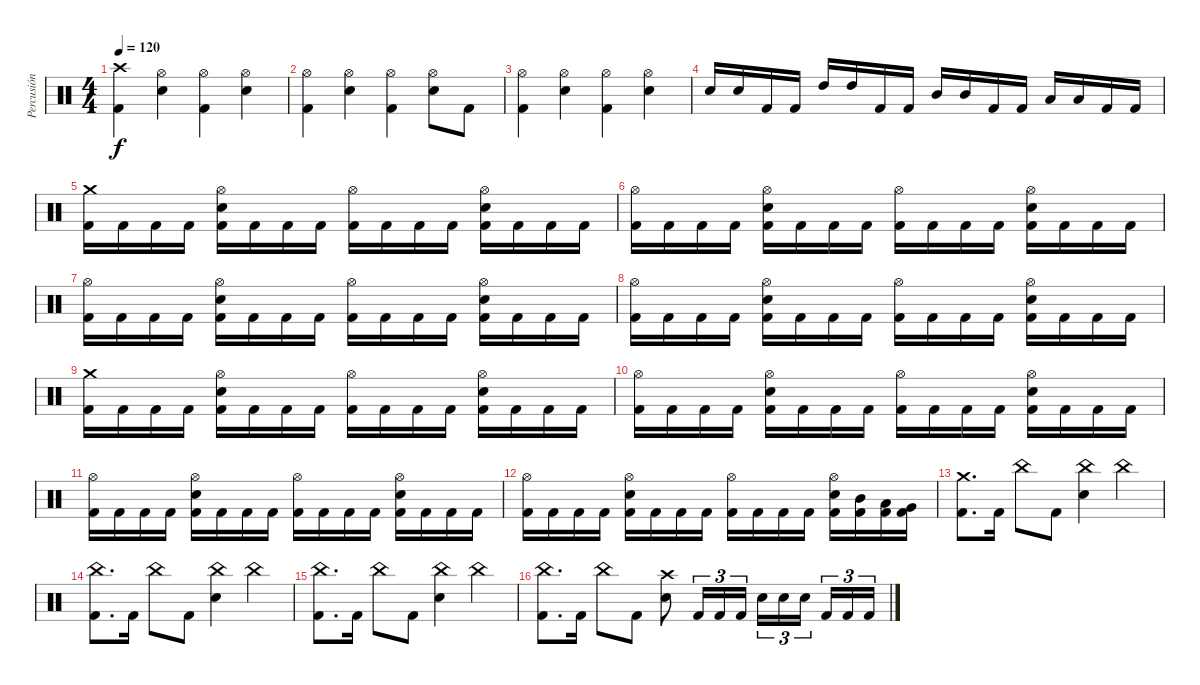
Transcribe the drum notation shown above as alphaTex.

\track ("Percusión" "Percusión") {instrument percussion}
\staff {score}
\articulation defaults
\ts (4 4)
\tempo 120
\clef neutral
\ks c
("Kick (hit) 2" "Crash high (hit)").4{dy f} ("Electric Snare (hit)" "Hi-Hat (open)").4 ("Kick (hit) 2" "Hi-Hat (open)").4 ("Electric Snare (hit)" "Hi-Hat (open)").4 |
("Kick (hit) 2" "Hi-Hat (open)").4 ("Electric Snare (hit)" "Hi-Hat (open)").4 ("Kick (hit) 2" "Hi-Hat (open)").4 ("Electric Snare (hit)" "Hi-Hat (open)").8 "Kick (hit) 2".8 |
("Kick (hit) 2" "Hi-Hat (open)").4 ("Electric Snare (hit)" "Hi-Hat (open)").4 ("Kick (hit) 2" "Hi-Hat (open)").4 ("Electric Snare (hit)" "Hi-Hat (open)").4 |
"Electric Snare (hit)".16 "Electric Snare (hit)".16 "Kick (hit) 2".16 "Kick (hit) 2".16 "High Tom (hit)".16 "High Tom (hit)".16 "Kick (hit) 2".16 "Kick (hit) 2".16 "Mid Tom (hit)".16 "Mid Tom (hit)".16 "Kick (hit) 2".16 "Kick (hit) 2".16 "Low Tom (hit)".16 "Low Tom (hit)".16 "Kick (hit) 2".16 "Kick (hit) 2".16 |
("Kick (hit) 2" "Crash medium (hit)").16 "Kick (hit) 2".16 "Kick (hit) 2".16 "Kick (hit) 2".16 ("Kick (hit) 2" "Electric Snare (hit)" "Hi-Hat (open)").16 "Kick (hit) 2".16 "Kick (hit) 2".16 "Kick (hit) 2".16 ("Kick (hit) 2" "Hi-Hat (open)").16 "Kick (hit) 2".16 "Kick (hit) 2".16 "Kick (hit) 2".16 ("Kick (hit) 2" "Electric Snare (hit)" "Hi-Hat (open)").16 "Kick (hit) 2".16 "Kick (hit) 2".16 "Kick (hit) 2".16 |
("Kick (hit) 2" "Hi-Hat (open)").16 "Kick (hit) 2".16 "Kick (hit) 2".16 "Kick (hit) 2".16 ("Kick (hit) 2" "Electric Snare (hit)" "Hi-Hat (open)").16 "Kick (hit) 2".16 "Kick (hit) 2".16 "Kick (hit) 2".16 ("Kick (hit) 2" "Hi-Hat (open)").16 "Kick (hit) 2".16 "Kick (hit) 2".16 "Kick (hit) 2".16 ("Kick (hit) 2" "Electric Snare (hit)" "Hi-Hat (open)").16 "Kick (hit) 2".16 "Kick (hit) 2".16 "Kick (hit) 2".16 |
("Kick (hit) 2" "Hi-Hat (open)").16 "Kick (hit) 2".16 "Kick (hit) 2".16 "Kick (hit) 2".16 ("Kick (hit) 2" "Electric Snare (hit)" "Hi-Hat (open)").16 "Kick (hit) 2".16 "Kick (hit) 2".16 "Kick (hit) 2".16 ("Kick (hit) 2" "Hi-Hat (open)").16 "Kick (hit) 2".16 "Kick (hit) 2".16 "Kick (hit) 2".16 ("Kick (hit) 2" "Electric Snare (hit)" "Hi-Hat (open)").16 "Kick (hit) 2".16 "Kick (hit) 2".16 "Kick (hit) 2".16 |
("Kick (hit) 2" "Hi-Hat (open)").16 "Kick (hit) 2".16 "Kick (hit) 2".16 "Kick (hit) 2".16 ("Kick (hit) 2" "Electric Snare (hit)" "Hi-Hat (open)").16 "Kick (hit) 2".16 "Kick (hit) 2".16 "Kick (hit) 2".16 ("Kick (hit) 2" "Hi-Hat (open)").16 "Kick (hit) 2".16 "Kick (hit) 2".16 "Kick (hit) 2".16 ("Kick (hit) 2" "Electric Snare (hit)" "Hi-Hat (open)").16 "Kick (hit) 2".16 "Kick (hit) 2".16 "Kick (hit) 2".16 |
("Kick (hit) 2" "Crash medium (hit)").16 "Kick (hit) 2".16 "Kick (hit) 2".16 "Kick (hit) 2".16 ("Kick (hit) 2" "Electric Snare (hit)" "Hi-Hat (open)").16 "Kick (hit) 2".16 "Kick (hit) 2".16 "Kick (hit) 2".16 ("Kick (hit) 2" "Hi-Hat (open)").16 "Kick (hit) 2".16 "Kick (hit) 2".16 "Kick (hit) 2".16 ("Kick (hit) 2" "Electric Snare (hit)" "Hi-Hat (open)").16 "Kick (hit) 2".16 "Kick (hit) 2".16 "Kick (hit) 2".16 |
("Kick (hit) 2" "Hi-Hat (open)").16 "Kick (hit) 2".16 "Kick (hit) 2".16 "Kick (hit) 2".16 ("Kick (hit) 2" "Electric Snare (hit)" "Hi-Hat (open)").16 "Kick (hit) 2".16 "Kick (hit) 2".16 "Kick (hit) 2".16 ("Kick (hit) 2" "Hi-Hat (open)").16 "Kick (hit) 2".16 "Kick (hit) 2".16 "Kick (hit) 2".16 ("Kick (hit) 2" "Electric Snare (hit)" "Hi-Hat (open)").16 "Kick (hit) 2".16 "Kick (hit) 2".16 "Kick (hit) 2".16 |
("Kick (hit) 2" "Hi-Hat (open)").16 "Kick (hit) 2".16 "Kick (hit) 2".16 "Kick (hit) 2".16 ("Kick (hit) 2" "Electric Snare (hit)" "Hi-Hat (open)").16 "Kick (hit) 2".16 "Kick (hit) 2".16 "Kick (hit) 2".16 ("Kick (hit) 2" "Hi-Hat (open)").16 "Kick (hit) 2".16 "Kick (hit) 2".16 "Kick (hit) 2".16 ("Kick (hit) 2" "Electric Snare (hit)" "Hi-Hat (open)").16 "Kick (hit) 2".16 "Kick (hit) 2".16 "Kick (hit) 2".16 |
("Kick (hit) 2" "Hi-Hat (open)").16 "Kick (hit) 2".16 "Kick (hit) 2".16 "Kick (hit) 2".16 ("Kick (hit) 2" "Electric Snare (hit)" "Hi-Hat (open)").16 "Kick (hit) 2".16 "Kick (hit) 2".16 "Kick (hit) 2".16 ("Kick (hit) 2" "Hi-Hat (open)").16 "Kick (hit) 2".16 "Kick (hit) 2".16 "Kick (hit) 2".16 ("Kick (hit) 2" "Electric Snare (hit)" "Hi-Hat (open)").16 ("Kick (hit) 2" "Mid Tom (hit)").16 ("Kick (hit) 2" "Low Tom (hit)").16 ("Kick (hit) 2" "Very Low Tom (hit)").16 |
("Kick (hit) 2" "Crash medium (hit)").8{d} "Kick (hit) 2".16 "China (hit)".8 "Kick (hit) 2".8 ("Electric Snare (hit)" "China (hit)").4 "China (hit)".4 |
("Kick (hit) 2" "China (hit)").8{d} "Kick (hit) 2".16 "China (hit)".8 "Kick (hit) 2".8 ("Electric Snare (hit)" "China (hit)").4 "China (hit)".4 |
("Kick (hit) 2" "China (hit)").8{d} "Kick (hit) 2".16 "China (hit)".8 "Kick (hit) 2".8 ("Electric Snare (hit)" "China (hit)").4 "China (hit)".4 |
("Kick (hit) 2" "China (hit)").8{d} "Kick (hit) 2".16 "China (hit)".8 "Kick (hit) 2".8 ("Electric Snare (hit)" "Crash high (hit)").8 "Kick (hit) 2".16{tu (3 2)} "Kick (hit) 2".16{tu (3 2)} "Kick (hit) 2".16{tu (3 2)} "Electric Snare (hit)".16{tu (3 2)} "Electric Snare (hit)".16{tu (3 2)} "Electric Snare (hit)".16{tu (3 2) beam splitsecondary} "Kick (hit) 2".16{tu (3 2)} "Kick (hit) 2".16{tu (3 2)} "Kick (hit) 2".16{tu (3 2)}
